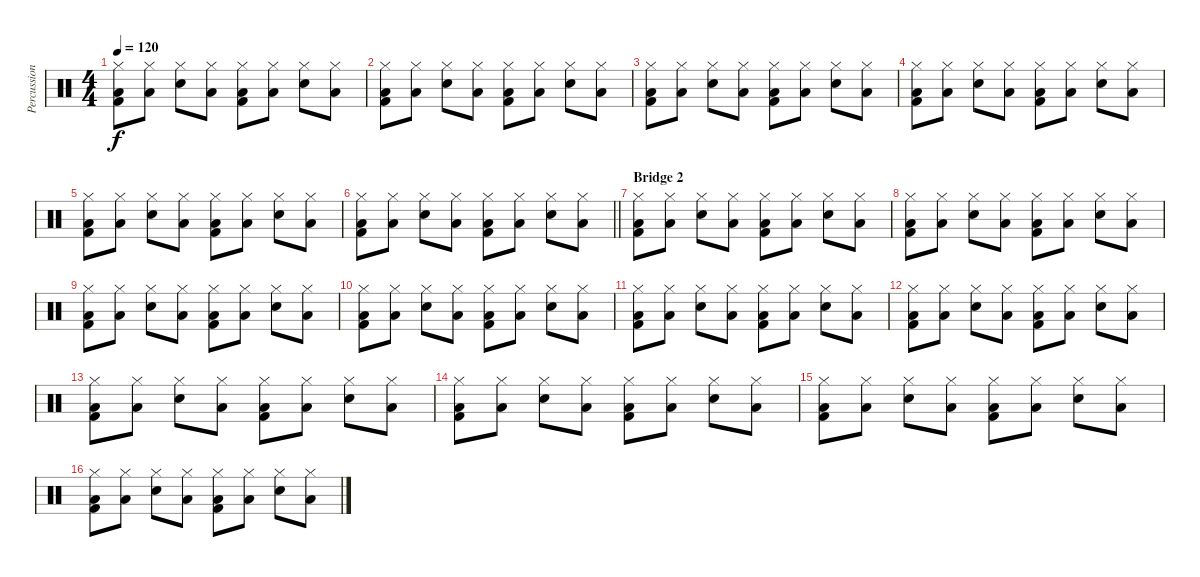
\track ("Percussion" "Percussion") {instrument percussion}
\staff
\articulation defaults
\ts (4 4)
\tempo 120
\clef neutral
\ks c
("Hi-Hat (closed)" "Low Floor Tom (hit)" "Kick (hit) 2").8{dy f} ("Hi-Hat (closed)" "Low Floor Tom (hit)").8 ("Hi-Hat (closed)" "Snare (hit) 2").8 ("Hi-Hat (closed)" "Low Floor Tom (hit)").8 ("Hi-Hat (closed)" "Low Floor Tom (hit)" "Kick (hit) 2").8 ("Hi-Hat (closed)" "Low Floor Tom (hit)").8 ("Hi-Hat (closed)" "Snare (hit) 2").8 ("Hi-Hat (closed)" "Low Floor Tom (hit)").8 |
("Hi-Hat (closed)" "Low Floor Tom (hit)" "Kick (hit) 2").8 ("Hi-Hat (closed)" "Low Floor Tom (hit)").8 ("Hi-Hat (closed)" "Snare (hit) 2").8 ("Hi-Hat (closed)" "Low Floor Tom (hit)").8 ("Hi-Hat (closed)" "Low Floor Tom (hit)" "Kick (hit) 2").8 ("Hi-Hat (closed)" "Low Floor Tom (hit)").8 ("Hi-Hat (closed)" "Snare (hit) 2").8 ("Hi-Hat (closed)" "Low Floor Tom (hit)").8 |
("Hi-Hat (closed)" "Low Floor Tom (hit)" "Kick (hit) 2").8 ("Hi-Hat (closed)" "Low Floor Tom (hit)").8 ("Hi-Hat (closed)" "Snare (hit) 2").8 ("Hi-Hat (closed)" "Low Floor Tom (hit)").8 ("Hi-Hat (closed)" "Low Floor Tom (hit)" "Kick (hit) 2").8 ("Hi-Hat (closed)" "Low Floor Tom (hit)").8 ("Hi-Hat (closed)" "Snare (hit) 2").8 ("Hi-Hat (closed)" "Low Floor Tom (hit)").8 |
("Hi-Hat (closed)" "Low Floor Tom (hit)" "Kick (hit) 2").8 ("Hi-Hat (closed)" "Low Floor Tom (hit)").8 ("Hi-Hat (closed)" "Snare (hit) 2").8 ("Hi-Hat (closed)" "Low Floor Tom (hit)").8 ("Hi-Hat (closed)" "Low Floor Tom (hit)" "Kick (hit) 2").8 ("Hi-Hat (closed)" "Low Floor Tom (hit)").8 ("Hi-Hat (closed)" "Snare (hit) 2").8 ("Hi-Hat (closed)" "Low Floor Tom (hit)").8 |
("Hi-Hat (closed)" "Low Floor Tom (hit)" "Kick (hit) 2").8 ("Hi-Hat (closed)" "Low Floor Tom (hit)").8 ("Hi-Hat (closed)" "Snare (hit) 2").8 ("Hi-Hat (closed)" "Low Floor Tom (hit)").8 ("Hi-Hat (closed)" "Low Floor Tom (hit)" "Kick (hit) 2").8 ("Hi-Hat (closed)" "Low Floor Tom (hit)").8 ("Hi-Hat (closed)" "Snare (hit) 2").8 ("Hi-Hat (closed)" "Low Floor Tom (hit)").8 |
\barLineRight lightlight
("Hi-Hat (closed)" "Low Floor Tom (hit)" "Kick (hit) 2").8 ("Hi-Hat (closed)" "Low Floor Tom (hit)").8 ("Hi-Hat (closed)" "Snare (hit) 2").8 ("Hi-Hat (closed)" "Low Floor Tom (hit)").8 ("Hi-Hat (closed)" "Low Floor Tom (hit)" "Kick (hit) 2").8 ("Hi-Hat (closed)" "Low Floor Tom (hit)").8 ("Hi-Hat (closed)" "Snare (hit) 2").8 ("Hi-Hat (closed)" "Low Floor Tom (hit)").8 |
\section ("" "Bridge 2")
("Hi-Hat (closed)" "Low Floor Tom (hit)" "Kick (hit) 2").8 ("Hi-Hat (closed)" "Low Floor Tom (hit)").8 ("Hi-Hat (closed)" "Snare (hit) 2").8 ("Hi-Hat (closed)" "Low Floor Tom (hit)").8 ("Hi-Hat (closed)" "Low Floor Tom (hit)" "Kick (hit) 2").8 ("Hi-Hat (closed)" "Low Floor Tom (hit)").8 ("Hi-Hat (closed)" "Snare (hit) 2").8 ("Hi-Hat (closed)" "Low Floor Tom (hit)").8 |
("Hi-Hat (closed)" "Low Floor Tom (hit)" "Kick (hit) 2").8 ("Hi-Hat (closed)" "Low Floor Tom (hit)").8 ("Hi-Hat (closed)" "Snare (hit) 2").8 ("Hi-Hat (closed)" "Low Floor Tom (hit)").8 ("Hi-Hat (closed)" "Low Floor Tom (hit)" "Kick (hit) 2").8 ("Hi-Hat (closed)" "Low Floor Tom (hit)").8 ("Hi-Hat (closed)" "Snare (hit) 2").8 ("Hi-Hat (closed)" "Low Floor Tom (hit)").8 |
("Hi-Hat (closed)" "Low Floor Tom (hit)" "Kick (hit) 2").8 ("Hi-Hat (closed)" "Low Floor Tom (hit)").8 ("Hi-Hat (closed)" "Snare (hit) 2").8 ("Hi-Hat (closed)" "Low Floor Tom (hit)").8 ("Hi-Hat (closed)" "Low Floor Tom (hit)" "Kick (hit) 2").8 ("Hi-Hat (closed)" "Low Floor Tom (hit)").8 ("Hi-Hat (closed)" "Snare (hit) 2").8 ("Hi-Hat (closed)" "Low Floor Tom (hit)").8 |
("Hi-Hat (closed)" "Low Floor Tom (hit)" "Kick (hit) 2").8 ("Hi-Hat (closed)" "Low Floor Tom (hit)").8 ("Hi-Hat (closed)" "Snare (hit) 2").8 ("Hi-Hat (closed)" "Low Floor Tom (hit)").8 ("Hi-Hat (closed)" "Low Floor Tom (hit)" "Kick (hit) 2").8 ("Hi-Hat (closed)" "Low Floor Tom (hit)").8 ("Hi-Hat (closed)" "Snare (hit) 2").8 ("Hi-Hat (closed)" "Low Floor Tom (hit)").8 |
("Hi-Hat (closed)" "Low Floor Tom (hit)" "Kick (hit) 2").8 ("Hi-Hat (closed)" "Low Floor Tom (hit)").8 ("Hi-Hat (closed)" "Snare (hit) 2").8 ("Hi-Hat (closed)" "Low Floor Tom (hit)").8 ("Hi-Hat (closed)" "Low Floor Tom (hit)" "Kick (hit) 2").8 ("Hi-Hat (closed)" "Low Floor Tom (hit)").8 ("Hi-Hat (closed)" "Snare (hit) 2").8 ("Hi-Hat (closed)" "Low Floor Tom (hit)").8 |
("Hi-Hat (closed)" "Low Floor Tom (hit)" "Kick (hit) 2").8 ("Hi-Hat (closed)" "Low Floor Tom (hit)").8 ("Hi-Hat (closed)" "Snare (hit) 2").8 ("Hi-Hat (closed)" "Low Floor Tom (hit)").8 ("Hi-Hat (closed)" "Low Floor Tom (hit)" "Kick (hit) 2").8 ("Hi-Hat (closed)" "Low Floor Tom (hit)").8 ("Hi-Hat (closed)" "Snare (hit) 2").8 ("Hi-Hat (closed)" "Low Floor Tom (hit)").8 |
("Hi-Hat (closed)" "Low Floor Tom (hit)" "Kick (hit) 2").8 ("Hi-Hat (closed)" "Low Floor Tom (hit)").8 ("Hi-Hat (closed)" "Snare (hit) 2").8 ("Hi-Hat (closed)" "Low Floor Tom (hit)").8 ("Hi-Hat (closed)" "Low Floor Tom (hit)" "Kick (hit) 2").8 ("Hi-Hat (closed)" "Low Floor Tom (hit)").8 ("Hi-Hat (closed)" "Snare (hit) 2").8 ("Hi-Hat (closed)" "Low Floor Tom (hit)").8 |
("Hi-Hat (closed)" "Low Floor Tom (hit)" "Kick (hit) 2").8 ("Hi-Hat (closed)" "Low Floor Tom (hit)").8 ("Hi-Hat (closed)" "Snare (hit) 2").8 ("Hi-Hat (closed)" "Low Floor Tom (hit)").8 ("Hi-Hat (closed)" "Low Floor Tom (hit)" "Kick (hit) 2").8 ("Hi-Hat (closed)" "Low Floor Tom (hit)").8 ("Hi-Hat (closed)" "Snare (hit) 2").8 ("Hi-Hat (closed)" "Low Floor Tom (hit)").8 |
("Hi-Hat (closed)" "Low Floor Tom (hit)" "Kick (hit) 2").8 ("Hi-Hat (closed)" "Low Floor Tom (hit)").8 ("Hi-Hat (closed)" "Snare (hit) 2").8 ("Hi-Hat (closed)" "Low Floor Tom (hit)").8 ("Hi-Hat (closed)" "Low Floor Tom (hit)" "Kick (hit) 2").8 ("Hi-Hat (closed)" "Low Floor Tom (hit)").8 ("Hi-Hat (closed)" "Snare (hit) 2").8 ("Hi-Hat (closed)" "Low Floor Tom (hit)").8 |
("Hi-Hat (closed)" "Low Floor Tom (hit)" "Kick (hit) 2").8 ("Hi-Hat (closed)" "Low Floor Tom (hit)").8 ("Hi-Hat (closed)" "Snare (hit) 2").8 ("Hi-Hat (closed)" "Low Floor Tom (hit)").8 ("Hi-Hat (closed)" "Low Floor Tom (hit)" "Kick (hit) 2").8 ("Hi-Hat (closed)" "Low Floor Tom (hit)").8 ("Hi-Hat (closed)" "Snare (hit) 2").8 ("Hi-Hat (closed)" "Low Floor Tom (hit)").8
